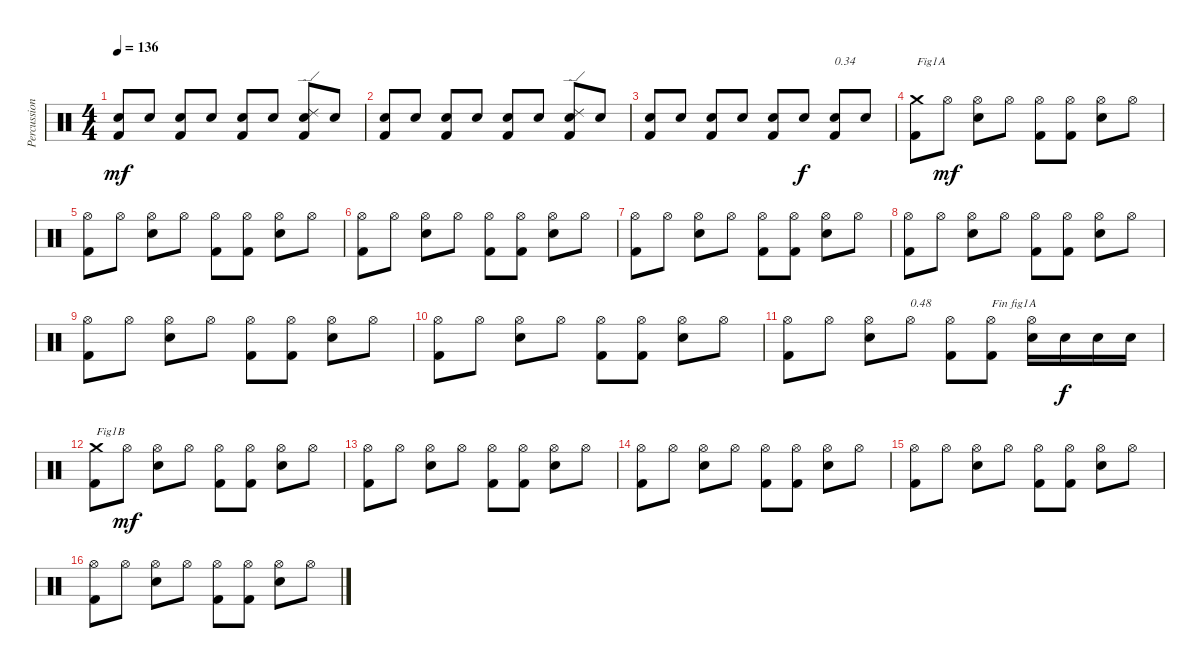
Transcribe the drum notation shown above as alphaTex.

\track ("Percussions" "Percussion") {instrument percussion}
\staff {score}
\articulation defaults
\ts (4 4)
\tempo 136
\clef neutral
\ks c
("Kick (hit) 2" "Snare (hit) 2").8{dy mf} "Snare (hit) 2".8 ("Kick (hit) 2" "Snare (hit) 2").8 "Snare (hit) 2".8 ("Kick (hit) 2" "Snare (hit) 2").8 "Snare (hit) 2".8 ("Kick (hit) 2" "Snare (hit) 2" "Ride (edge) 2").8 "Snare (hit) 2".8 |
("Kick (hit) 2" "Snare (hit) 2").8 "Snare (hit) 2".8 ("Kick (hit) 2" "Snare (hit) 2").8 "Snare (hit) 2".8 ("Kick (hit) 2" "Snare (hit) 2").8 "Snare (hit) 2".8 ("Kick (hit) 2" "Snare (hit) 2" "Ride (edge) 2").8 "Snare (hit) 2".8 |
("Kick (hit) 2" "Snare (hit) 2").8 "Snare (hit) 2".8 ("Kick (hit) 2" "Snare (hit) 2").8 "Snare (hit) 2".8 ("Kick (hit) 2" "Snare (hit) 2").8 "Electric Snare (hit)".8{dy f} ("Kick (hit) 2" "Electric Snare (hit)").8{txt "0.34"} "Electric Snare (hit)".8 |
("Kick (hit) 2" "Crash medium (hit)").8{txt "Fig1A"} "Hi-Hat (open)".8{dy mf} ("Electric Snare (hit)" "Hi-Hat (open)").8 "Hi-Hat (open)".8 ("Kick (hit) 2" "Hi-Hat (open)").8 ("Kick (hit) 2" "Hi-Hat (open)").8 ("Electric Snare (hit)" "Hi-Hat (open)").8 "Hi-Hat (open)".8 |
("Kick (hit) 2" "Hi-Hat (open)").8 "Hi-Hat (open)".8 ("Electric Snare (hit)" "Hi-Hat (open)").8 "Hi-Hat (open)".8 ("Kick (hit) 2" "Hi-Hat (open)").8 ("Kick (hit) 2" "Hi-Hat (open)").8 ("Electric Snare (hit)" "Hi-Hat (open)").8 "Hi-Hat (open)".8 |
("Kick (hit) 2" "Hi-Hat (open)").8 "Hi-Hat (open)".8 ("Electric Snare (hit)" "Hi-Hat (open)").8 "Hi-Hat (open)".8 ("Kick (hit) 2" "Hi-Hat (open)").8 ("Kick (hit) 2" "Hi-Hat (open)").8 ("Electric Snare (hit)" "Hi-Hat (open)").8 "Hi-Hat (open)".8 |
("Kick (hit) 2" "Hi-Hat (open)").8 "Hi-Hat (open)".8 ("Electric Snare (hit)" "Hi-Hat (open)").8 "Hi-Hat (open)".8 ("Kick (hit) 2" "Hi-Hat (open)").8 ("Kick (hit) 2" "Hi-Hat (open)").8 ("Electric Snare (hit)" "Hi-Hat (open)").8 "Hi-Hat (open)".8 |
("Kick (hit) 2" "Hi-Hat (open)").8 "Hi-Hat (open)".8 ("Electric Snare (hit)" "Hi-Hat (open)").8 "Hi-Hat (open)".8 ("Kick (hit) 2" "Hi-Hat (open)").8 ("Kick (hit) 2" "Hi-Hat (open)").8 ("Electric Snare (hit)" "Hi-Hat (open)").8 "Hi-Hat (open)".8 |
("Kick (hit) 2" "Hi-Hat (open)").8 "Hi-Hat (open)".8 ("Electric Snare (hit)" "Hi-Hat (open)").8 "Hi-Hat (open)".8 ("Kick (hit) 2" "Hi-Hat (open)").8 ("Kick (hit) 2" "Hi-Hat (open)").8 ("Electric Snare (hit)" "Hi-Hat (open)").8 "Hi-Hat (open)".8 |
("Kick (hit) 2" "Hi-Hat (open)").8 "Hi-Hat (open)".8 ("Electric Snare (hit)" "Hi-Hat (open)").8 "Hi-Hat (open)".8 ("Kick (hit) 2" "Hi-Hat (open)").8 ("Kick (hit) 2" "Hi-Hat (open)").8 ("Electric Snare (hit)" "Hi-Hat (open)").8 "Hi-Hat (open)".8 |
("Kick (hit) 2" "Hi-Hat (open)").8 "Hi-Hat (open)".8 ("Electric Snare (hit)" "Hi-Hat (open)").8 "Hi-Hat (open)".8{txt "0.48"} ("Kick (hit) 2" "Hi-Hat (open)").8 ("Kick (hit) 2" "Hi-Hat (open)").8{txt "Fin fig1A"} ("Electric Snare (hit)" "Hi-Hat (open)").16 "Electric Snare (hit)".16{dy f} "Electric Snare (hit)".16 "Electric Snare (hit)".16 |
("Kick (hit) 2" "Crash medium (hit)").8{txt "Fig1B"} "Hi-Hat (open)".8{dy mf} ("Electric Snare (hit)" "Hi-Hat (open)").8 "Hi-Hat (open)".8 ("Kick (hit) 2" "Hi-Hat (open)").8 ("Kick (hit) 2" "Hi-Hat (open)").8 ("Electric Snare (hit)" "Hi-Hat (open)").8 "Hi-Hat (open)".8 |
("Kick (hit) 2" "Hi-Hat (open)").8 "Hi-Hat (open)".8 ("Electric Snare (hit)" "Hi-Hat (open)").8 "Hi-Hat (open)".8 ("Kick (hit) 2" "Hi-Hat (open)").8 ("Kick (hit) 2" "Hi-Hat (open)").8 ("Electric Snare (hit)" "Hi-Hat (open)").8 "Hi-Hat (open)".8 |
("Kick (hit) 2" "Hi-Hat (open)").8 "Hi-Hat (open)".8 ("Electric Snare (hit)" "Hi-Hat (open)").8 "Hi-Hat (open)".8 ("Kick (hit) 2" "Hi-Hat (open)").8 ("Kick (hit) 2" "Hi-Hat (open)").8 ("Electric Snare (hit)" "Hi-Hat (open)").8 "Hi-Hat (open)".8 |
("Kick (hit) 2" "Hi-Hat (open)").8 "Hi-Hat (open)".8 ("Electric Snare (hit)" "Hi-Hat (open)").8 "Hi-Hat (open)".8 ("Kick (hit) 2" "Hi-Hat (open)").8 ("Kick (hit) 2" "Hi-Hat (open)").8 ("Electric Snare (hit)" "Hi-Hat (open)").8 "Hi-Hat (open)".8 |
("Kick (hit) 2" "Hi-Hat (open)").8 "Hi-Hat (open)".8 ("Electric Snare (hit)" "Hi-Hat (open)").8 "Hi-Hat (open)".8 ("Kick (hit) 2" "Hi-Hat (open)").8 ("Kick (hit) 2" "Hi-Hat (open)").8 ("Electric Snare (hit)" "Hi-Hat (open)").8 "Hi-Hat (open)".8
